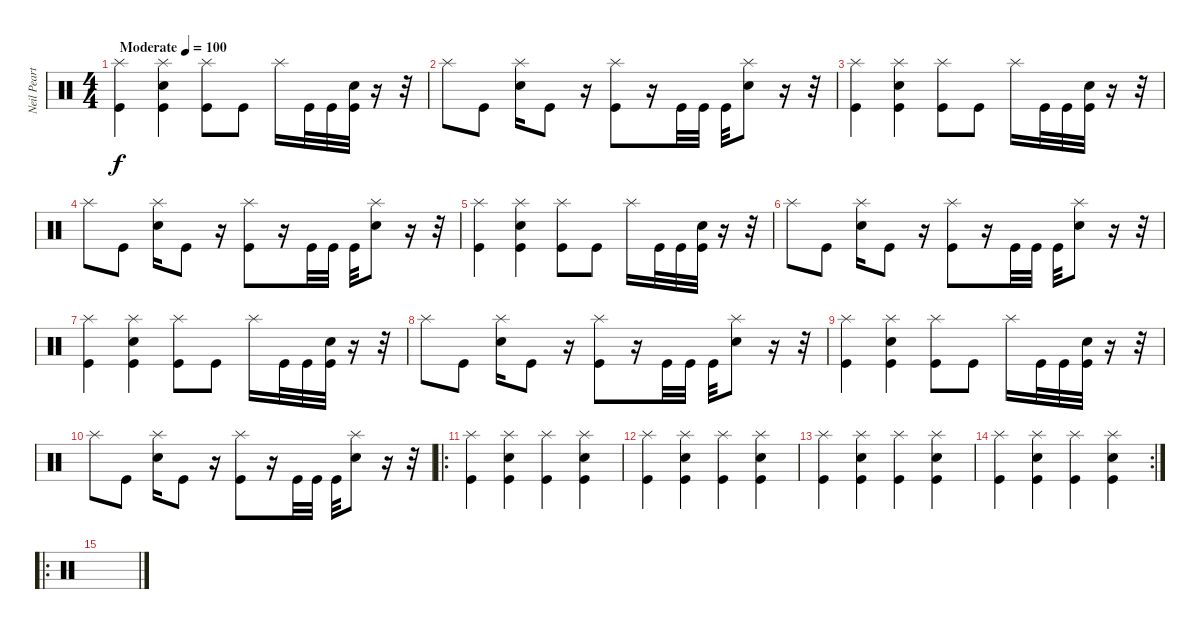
\track ("Neil Peart - Percussion" "Neil Peart") {instrument percussion}
\staff {score}
\articulation defaults
\ts (4 4)
\tempo (100 "Moderate")
\clef neutral
\ks c
("Splash (hit)" "Kick (hit)").4{dy f} ("Snare (hit) 2" "Splash (hit)" "Kick (hit)").4 ("Splash (hit)" "Kick (hit)").8 "Kick (hit)".8 "Splash (hit)".16 "Kick (hit)".32 "Kick (hit)".32 ("Snare (hit) 2" "Kick (hit)").32 r.16 r.32 |
"Splash (hit)".8 "Kick (hit)".8 ("Snare (hit) 2" "Splash (hit)").16 "Kick (hit)".8 r.16 ("Splash (hit)" "Kick (hit)").8 r.16 "Kick (hit)".32 "Kick (hit)".32 "Kick (hit)".32 ("Snare (hit) 2" "Splash (hit)").8 r.16 r.32 |
("Splash (hit)" "Kick (hit)").4 ("Snare (hit) 2" "Splash (hit)" "Kick (hit)").4 ("Splash (hit)" "Kick (hit)").8 "Kick (hit)".8 "Splash (hit)".16 "Kick (hit)".32 "Kick (hit)".32 ("Snare (hit) 2" "Kick (hit)").32 r.16 r.32 |
"Splash (hit)".8 "Kick (hit)".8 ("Snare (hit) 2" "Splash (hit)").16 "Kick (hit)".8 r.16 ("Splash (hit)" "Kick (hit)").8 r.16 "Kick (hit)".32 "Kick (hit)".32 "Kick (hit)".32 ("Snare (hit) 2" "Splash (hit)").8 r.16 r.32 |
("Splash (hit)" "Kick (hit)").4 ("Snare (hit) 2" "Splash (hit)" "Kick (hit)").4 ("Splash (hit)" "Kick (hit)").8 "Kick (hit)".8 "Splash (hit)".16 "Kick (hit)".32 "Kick (hit)".32 ("Snare (hit) 2" "Kick (hit)").32 r.16 r.32 |
"Splash (hit)".8 "Kick (hit)".8 ("Snare (hit) 2" "Splash (hit)").16 "Kick (hit)".8 r.16 ("Splash (hit)" "Kick (hit)").8 r.16 "Kick (hit)".32 "Kick (hit)".32 "Kick (hit)".32 ("Snare (hit) 2" "Splash (hit)").8 r.16 r.32 |
("Splash (hit)" "Kick (hit)").4 ("Snare (hit) 2" "Splash (hit)" "Kick (hit)").4 ("Splash (hit)" "Kick (hit)").8 "Kick (hit)".8 "Splash (hit)".16 "Kick (hit)".32 "Kick (hit)".32 ("Snare (hit) 2" "Kick (hit)").32 r.16 r.32 |
"Splash (hit)".8 "Kick (hit)".8 ("Snare (hit) 2" "Splash (hit)").16 "Kick (hit)".8 r.16 ("Splash (hit)" "Kick (hit)").8 r.16 "Kick (hit)".32 "Kick (hit)".32 "Kick (hit)".32 ("Snare (hit) 2" "Splash (hit)").8 r.16 r.32 |
("Splash (hit)" "Kick (hit)").4 ("Snare (hit) 2" "Splash (hit)" "Kick (hit)").4 ("Splash (hit)" "Kick (hit)").8 "Kick (hit)".8 "Splash (hit)".16 "Kick (hit)".32 "Kick (hit)".32 ("Snare (hit) 2" "Kick (hit)").32 r.16 r.32 |
"Splash (hit)".8 "Kick (hit)".8 ("Snare (hit) 2" "Splash (hit)").16 "Kick (hit)".8 r.16 ("Splash (hit)" "Kick (hit)").8 r.16 "Kick (hit)".32 "Kick (hit)".32 "Kick (hit)".32 ("Snare (hit) 2" "Splash (hit)").8 r.16 r.32 |
\ro
("Splash (hit)" "Kick (hit)").4 ("Snare (hit) 2" "Splash (hit)" "Kick (hit)").4 ("Splash (hit)" "Kick (hit)").4 ("Snare (hit) 2" "Splash (hit)" "Kick (hit)").4 |
("Splash (hit)" "Kick (hit)").4 ("Snare (hit) 2" "Splash (hit)" "Kick (hit)").4 ("Splash (hit)" "Kick (hit)").4 ("Snare (hit) 2" "Splash (hit)" "Kick (hit)").4 |
("Splash (hit)" "Kick (hit)").4 ("Snare (hit) 2" "Splash (hit)" "Kick (hit)").4 ("Splash (hit)" "Kick (hit)").4 ("Snare (hit) 2" "Splash (hit)" "Kick (hit)").4 |
\rc 2
("Splash (hit)" "Kick (hit)").4 ("Snare (hit) 2" "Splash (hit)" "Kick (hit)").4 ("Splash (hit)" "Kick (hit)").4 ("Snare (hit) 2" "Splash (hit)" "Kick (hit)").4 |
\ro
